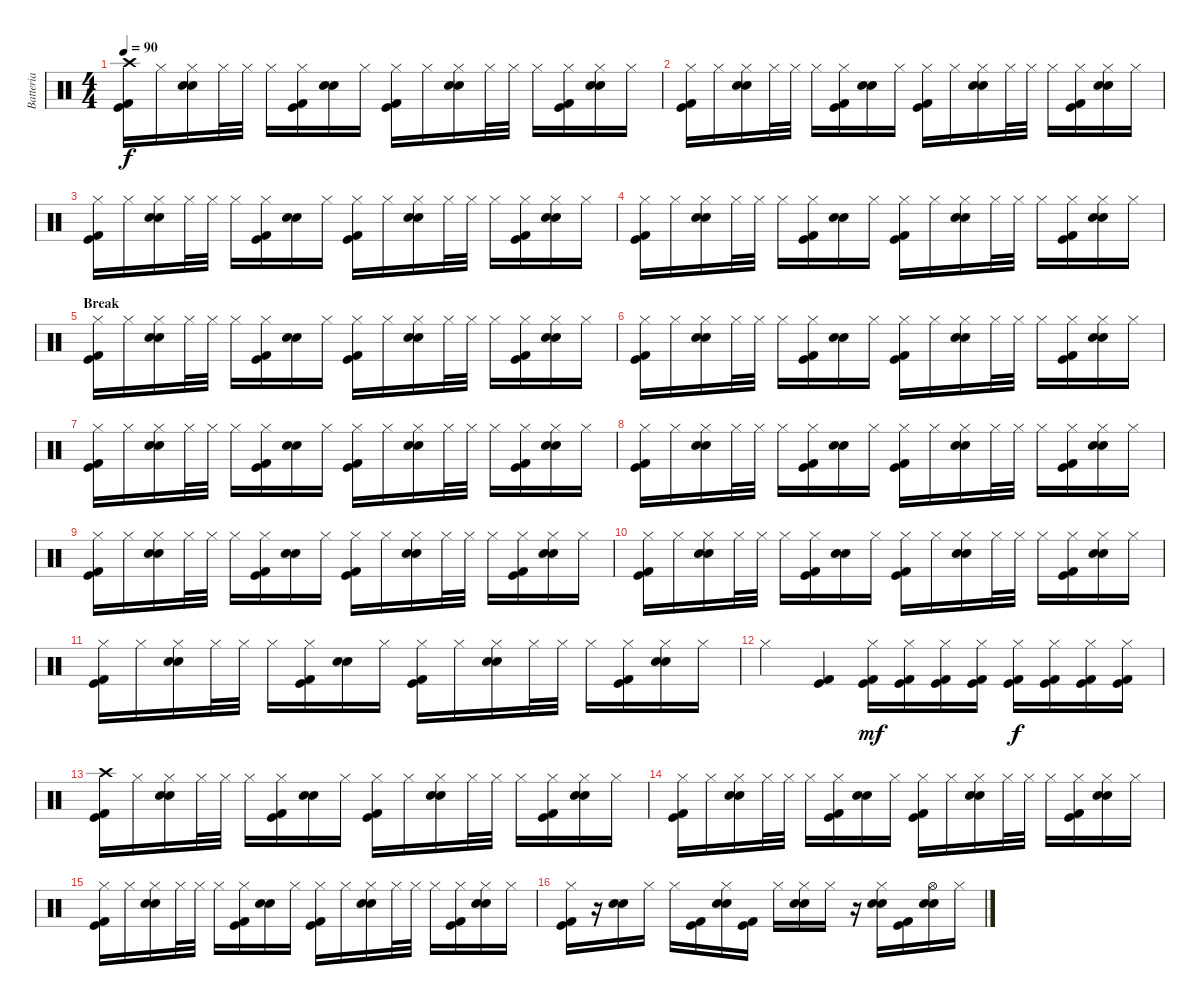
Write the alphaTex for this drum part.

\track ("Batteria" "Batteria") {instrument percussion}
\staff {score}
\articulation defaults
\ts (4 4)
\tempo 90
\clef neutral
\ks c
("Crash high (hit)" "Kick (hit)" "Kick (hit) 2").16{dy f} "Hi-Hat (closed)".16 ("Hi-Hat (closed)" "Snare (hit) 2" "Electric Snare (hit)").16 "Hi-Hat (closed)".32 "Hi-Hat (closed)".32 "Hi-Hat (closed)".16 ("Hi-Hat (closed)" "Kick (hit) 2" "Kick (hit)").16 ("Snare (hit) 2" "Electric Snare (hit)").16 "Hi-Hat (closed)".16 ("Hi-Hat (closed)" "Kick (hit) 2" "Kick (hit)").16 "Hi-Hat (closed)".16 ("Hi-Hat (closed)" "Snare (hit) 2" "Electric Snare (hit)").16 "Hi-Hat (closed)".32 "Hi-Hat (closed)".32 "Hi-Hat (closed)".16 ("Hi-Hat (closed)" "Kick (hit) 2" "Kick (hit)").16 ("Hi-Hat (closed)" "Snare (hit) 2" "Electric Snare (hit)").16 "Hi-Hat (closed)".16 |
("Hi-Hat (closed)" "Kick (hit)" "Kick (hit) 2").16 "Hi-Hat (closed)".16 ("Hi-Hat (closed)" "Snare (hit) 2" "Electric Snare (hit)").16 "Hi-Hat (closed)".32 "Hi-Hat (closed)".32 "Hi-Hat (closed)".16 ("Hi-Hat (closed)" "Kick (hit) 2" "Kick (hit)").16 ("Snare (hit) 2" "Electric Snare (hit)").16 "Hi-Hat (closed)".16 ("Hi-Hat (closed)" "Kick (hit) 2" "Kick (hit)").16 "Hi-Hat (closed)".16 ("Hi-Hat (closed)" "Snare (hit) 2" "Electric Snare (hit)").16 "Hi-Hat (closed)".32 "Hi-Hat (closed)".32 "Hi-Hat (closed)".16 ("Hi-Hat (closed)" "Kick (hit) 2" "Kick (hit)").16 ("Hi-Hat (closed)" "Snare (hit) 2" "Electric Snare (hit)").16 "Hi-Hat (closed)".16 |
("Hi-Hat (closed)" "Kick (hit)" "Kick (hit) 2").16 "Hi-Hat (closed)".16 ("Hi-Hat (closed)" "Snare (hit) 2" "Electric Snare (hit)").16 "Hi-Hat (closed)".32 "Hi-Hat (closed)".32 "Hi-Hat (closed)".16 ("Hi-Hat (closed)" "Kick (hit) 2" "Kick (hit)").16 ("Snare (hit) 2" "Electric Snare (hit)").16 "Hi-Hat (closed)".16 ("Hi-Hat (closed)" "Kick (hit) 2" "Kick (hit)").16 "Hi-Hat (closed)".16 ("Hi-Hat (closed)" "Snare (hit) 2" "Electric Snare (hit)").16 "Hi-Hat (closed)".32 "Hi-Hat (closed)".32 "Hi-Hat (closed)".16 ("Hi-Hat (closed)" "Kick (hit) 2" "Kick (hit)").16 ("Hi-Hat (closed)" "Snare (hit) 2" "Electric Snare (hit)").16 "Hi-Hat (closed)".16 |
("Hi-Hat (closed)" "Kick (hit)" "Kick (hit) 2").16 "Hi-Hat (closed)".16 ("Hi-Hat (closed)" "Snare (hit) 2" "Electric Snare (hit)").16 "Hi-Hat (closed)".32 "Hi-Hat (closed)".32 "Hi-Hat (closed)".16 ("Hi-Hat (closed)" "Kick (hit) 2" "Kick (hit)").16 ("Snare (hit) 2" "Electric Snare (hit)").16 "Hi-Hat (closed)".16 ("Hi-Hat (closed)" "Kick (hit) 2" "Kick (hit)").16 "Hi-Hat (closed)".16 ("Hi-Hat (closed)" "Snare (hit) 2" "Electric Snare (hit)").16 "Hi-Hat (closed)".32 "Hi-Hat (closed)".32 "Hi-Hat (closed)".16 ("Hi-Hat (closed)" "Kick (hit) 2" "Kick (hit)").16 ("Hi-Hat (closed)" "Snare (hit) 2" "Electric Snare (hit)").16 "Hi-Hat (closed)".16 |
\section ("" "Break")
("Hi-Hat (closed)" "Kick (hit)" "Kick (hit) 2").16 "Hi-Hat (closed)".16 ("Hi-Hat (closed)" "Snare (hit) 2" "Electric Snare (hit)").16 "Hi-Hat (closed)".32 "Hi-Hat (closed)".32 "Hi-Hat (closed)".16 ("Hi-Hat (closed)" "Kick (hit) 2" "Kick (hit)").16 ("Snare (hit) 2" "Electric Snare (hit)").16 "Hi-Hat (closed)".16 ("Hi-Hat (closed)" "Kick (hit) 2" "Kick (hit)").16 "Hi-Hat (closed)".16 ("Hi-Hat (closed)" "Snare (hit) 2" "Electric Snare (hit)").16 "Hi-Hat (closed)".32 "Hi-Hat (closed)".32 "Hi-Hat (closed)".16 ("Hi-Hat (closed)" "Kick (hit) 2" "Kick (hit)").16 ("Hi-Hat (closed)" "Snare (hit) 2" "Electric Snare (hit)").16 "Hi-Hat (closed)".16 |
("Hi-Hat (closed)" "Kick (hit)" "Kick (hit) 2").16 "Hi-Hat (closed)".16 ("Hi-Hat (closed)" "Snare (hit) 2" "Electric Snare (hit)").16 "Hi-Hat (closed)".32 "Hi-Hat (closed)".32 "Hi-Hat (closed)".16 ("Hi-Hat (closed)" "Kick (hit) 2" "Kick (hit)").16 ("Snare (hit) 2" "Electric Snare (hit)").16 "Hi-Hat (closed)".16 ("Hi-Hat (closed)" "Kick (hit) 2" "Kick (hit)").16 "Hi-Hat (closed)".16 ("Hi-Hat (closed)" "Snare (hit) 2" "Electric Snare (hit)").16 "Hi-Hat (closed)".32 "Hi-Hat (closed)".32 "Hi-Hat (closed)".16 ("Hi-Hat (closed)" "Kick (hit) 2" "Kick (hit)").16 ("Hi-Hat (closed)" "Snare (hit) 2" "Electric Snare (hit)").16 "Hi-Hat (closed)".16 |
("Hi-Hat (closed)" "Kick (hit)" "Kick (hit) 2").16 "Hi-Hat (closed)".16 ("Hi-Hat (closed)" "Snare (hit) 2" "Electric Snare (hit)").16 "Hi-Hat (closed)".32 "Hi-Hat (closed)".32 "Hi-Hat (closed)".16 ("Hi-Hat (closed)" "Kick (hit) 2" "Kick (hit)").16 ("Snare (hit) 2" "Electric Snare (hit)").16 "Hi-Hat (closed)".16 ("Hi-Hat (closed)" "Kick (hit) 2" "Kick (hit)").16 "Hi-Hat (closed)".16 ("Hi-Hat (closed)" "Snare (hit) 2" "Electric Snare (hit)").16 "Hi-Hat (closed)".32 "Hi-Hat (closed)".32 "Hi-Hat (closed)".16 ("Hi-Hat (closed)" "Kick (hit) 2" "Kick (hit)").16 ("Hi-Hat (closed)" "Snare (hit) 2" "Electric Snare (hit)").16 "Hi-Hat (closed)".16 |
("Hi-Hat (closed)" "Kick (hit)" "Kick (hit) 2").16 "Hi-Hat (closed)".16 ("Hi-Hat (closed)" "Snare (hit) 2" "Electric Snare (hit)").16 "Hi-Hat (closed)".32 "Hi-Hat (closed)".32 "Hi-Hat (closed)".16 ("Hi-Hat (closed)" "Kick (hit) 2" "Kick (hit)").16 ("Snare (hit) 2" "Electric Snare (hit)").16 "Hi-Hat (closed)".16 ("Hi-Hat (closed)" "Kick (hit) 2" "Kick (hit)").16 "Hi-Hat (closed)".16 ("Hi-Hat (closed)" "Snare (hit) 2" "Electric Snare (hit)").16 "Hi-Hat (closed)".32 "Hi-Hat (closed)".32 "Hi-Hat (closed)".16 ("Hi-Hat (closed)" "Kick (hit) 2" "Kick (hit)").16 ("Hi-Hat (closed)" "Snare (hit) 2" "Electric Snare (hit)").16 "Hi-Hat (closed)".16 |
("Hi-Hat (closed)" "Kick (hit)" "Kick (hit) 2").16 "Hi-Hat (closed)".16 ("Hi-Hat (closed)" "Snare (hit) 2" "Electric Snare (hit)").16 "Hi-Hat (closed)".32 "Hi-Hat (closed)".32 "Hi-Hat (closed)".16 ("Hi-Hat (closed)" "Kick (hit) 2" "Kick (hit)").16 ("Snare (hit) 2" "Electric Snare (hit)").16 "Hi-Hat (closed)".16 ("Hi-Hat (closed)" "Kick (hit) 2" "Kick (hit)").16 "Hi-Hat (closed)".16 ("Hi-Hat (closed)" "Snare (hit) 2" "Electric Snare (hit)").16 "Hi-Hat (closed)".32 "Hi-Hat (closed)".32 "Hi-Hat (closed)".16 ("Hi-Hat (closed)" "Kick (hit) 2" "Kick (hit)").16 ("Hi-Hat (closed)" "Snare (hit) 2" "Electric Snare (hit)").16 "Hi-Hat (closed)".16 |
("Hi-Hat (closed)" "Kick (hit)" "Kick (hit) 2").16 "Hi-Hat (closed)".16 ("Hi-Hat (closed)" "Snare (hit) 2" "Electric Snare (hit)").16 "Hi-Hat (closed)".32 "Hi-Hat (closed)".32 "Hi-Hat (closed)".16 ("Hi-Hat (closed)" "Kick (hit) 2" "Kick (hit)").16 ("Snare (hit) 2" "Electric Snare (hit)").16 "Hi-Hat (closed)".16 ("Hi-Hat (closed)" "Kick (hit) 2" "Kick (hit)").16 "Hi-Hat (closed)".16 ("Hi-Hat (closed)" "Snare (hit) 2" "Electric Snare (hit)").16 "Hi-Hat (closed)".32 "Hi-Hat (closed)".32 "Hi-Hat (closed)".16 ("Hi-Hat (closed)" "Kick (hit) 2" "Kick (hit)").16 ("Hi-Hat (closed)" "Snare (hit) 2" "Electric Snare (hit)").16 "Hi-Hat (closed)".16 |
("Hi-Hat (closed)" "Kick (hit)" "Kick (hit) 2").16 "Hi-Hat (closed)".16 ("Hi-Hat (closed)" "Snare (hit) 2" "Electric Snare (hit)").16 "Hi-Hat (closed)".32 "Hi-Hat (closed)".32 "Hi-Hat (closed)".16 ("Hi-Hat (closed)" "Kick (hit) 2" "Kick (hit)").16 ("Snare (hit) 2" "Electric Snare (hit)").16 "Hi-Hat (closed)".16 ("Hi-Hat (closed)" "Kick (hit) 2" "Kick (hit)").16 "Hi-Hat (closed)".16 ("Hi-Hat (closed)" "Snare (hit) 2" "Electric Snare (hit)").16 "Hi-Hat (closed)".32 "Hi-Hat (closed)".32 "Hi-Hat (closed)".16 ("Hi-Hat (closed)" "Kick (hit) 2" "Kick (hit)").16 ("Hi-Hat (closed)" "Snare (hit) 2" "Electric Snare (hit)").16 "Hi-Hat (closed)".16 |
"Hi-Hat (closed)".4 ("Kick (hit)" "Kick (hit) 2").4 ("Hi-Hat (closed)" "Kick (hit)" "Kick (hit) 2").16{dy mf} ("Hi-Hat (closed)" "Kick (hit)" "Kick (hit) 2").16 ("Hi-Hat (closed)" "Kick (hit)" "Kick (hit) 2").16 ("Hi-Hat (closed)" "Kick (hit)" "Kick (hit) 2").16 ("Hi-Hat (closed)" "Kick (hit)" "Kick (hit) 2").16{dy f} ("Hi-Hat (closed)" "Kick (hit)" "Kick (hit) 2").16 ("Hi-Hat (closed)" "Kick (hit)" "Kick (hit) 2").16 ("Hi-Hat (closed)" "Kick (hit)" "Kick (hit) 2").16 |
("Crash high (hit)" "Kick (hit)" "Kick (hit) 2").16 "Hi-Hat (closed)".16 ("Hi-Hat (closed)" "Snare (hit) 2" "Electric Snare (hit)").16 "Hi-Hat (closed)".32 "Hi-Hat (closed)".32 "Hi-Hat (closed)".16 ("Hi-Hat (closed)" "Kick (hit) 2" "Kick (hit)").16 ("Snare (hit) 2" "Electric Snare (hit)").16 "Hi-Hat (closed)".16 ("Hi-Hat (closed)" "Kick (hit) 2" "Kick (hit)").16 "Hi-Hat (closed)".16 ("Hi-Hat (closed)" "Snare (hit) 2" "Electric Snare (hit)").16 "Hi-Hat (closed)".32 "Hi-Hat (closed)".32 "Hi-Hat (closed)".16 ("Hi-Hat (closed)" "Kick (hit) 2" "Kick (hit)").16 ("Hi-Hat (closed)" "Snare (hit) 2" "Electric Snare (hit)").16 "Hi-Hat (closed)".16 |
("Hi-Hat (closed)" "Kick (hit)" "Kick (hit) 2").16 "Hi-Hat (closed)".16 ("Hi-Hat (closed)" "Snare (hit) 2" "Electric Snare (hit)").16 "Hi-Hat (closed)".32 "Hi-Hat (closed)".32 "Hi-Hat (closed)".16 ("Hi-Hat (closed)" "Kick (hit) 2" "Kick (hit)").16 ("Snare (hit) 2" "Electric Snare (hit)").16 "Hi-Hat (closed)".16 ("Hi-Hat (closed)" "Kick (hit) 2" "Kick (hit)").16 "Hi-Hat (closed)".16 ("Hi-Hat (closed)" "Snare (hit) 2" "Electric Snare (hit)").16 "Hi-Hat (closed)".32 "Hi-Hat (closed)".32 "Hi-Hat (closed)".16 ("Hi-Hat (closed)" "Kick (hit) 2" "Kick (hit)").16 ("Hi-Hat (closed)" "Snare (hit) 2" "Electric Snare (hit)").16 "Hi-Hat (closed)".16 |
("Hi-Hat (closed)" "Kick (hit)" "Kick (hit) 2").16 "Hi-Hat (closed)".16 ("Hi-Hat (closed)" "Snare (hit) 2" "Electric Snare (hit)").16 "Hi-Hat (closed)".32 "Hi-Hat (closed)".32 "Hi-Hat (closed)".16 ("Hi-Hat (closed)" "Kick (hit) 2" "Kick (hit)").16 ("Snare (hit) 2" "Electric Snare (hit)").16 "Hi-Hat (closed)".16 ("Hi-Hat (closed)" "Kick (hit) 2" "Kick (hit)").16 "Hi-Hat (closed)".16 ("Hi-Hat (closed)" "Snare (hit) 2" "Electric Snare (hit)").16 "Hi-Hat (closed)".32 "Hi-Hat (closed)".32 "Hi-Hat (closed)".16 ("Hi-Hat (closed)" "Kick (hit) 2" "Kick (hit)").16 ("Hi-Hat (closed)" "Snare (hit) 2" "Electric Snare (hit)").16 "Hi-Hat (closed)".16 |
("Hi-Hat (closed)" "Kick (hit)" "Kick (hit) 2").16 r.16 ("Snare (hit) 2" "Electric Snare (hit)").16 "Hi-Hat (closed)".16 "Hi-Hat (closed)".16 ("Kick (hit)" "Kick (hit) 2").16 ("Hi-Hat (closed)" "Snare (hit) 2" "Electric Snare (hit)").16 ("Kick (hit)" "Kick (hit) 2").16 "Hi-Hat (closed)".16 ("Hi-Hat (closed)" "Snare (hit) 2" "Electric Snare (hit)").16 "Hi-Hat (closed)".16 r.16 ("Hi-Hat (closed)" "Snare (hit) 2" "Electric Snare (hit)").16 ("Kick (hit)" "Kick (hit) 2").16 ("Hi-Hat (open)" "Snare (hit) 2" "Electric Snare (hit)").16 "Hi-Hat (closed)".16
